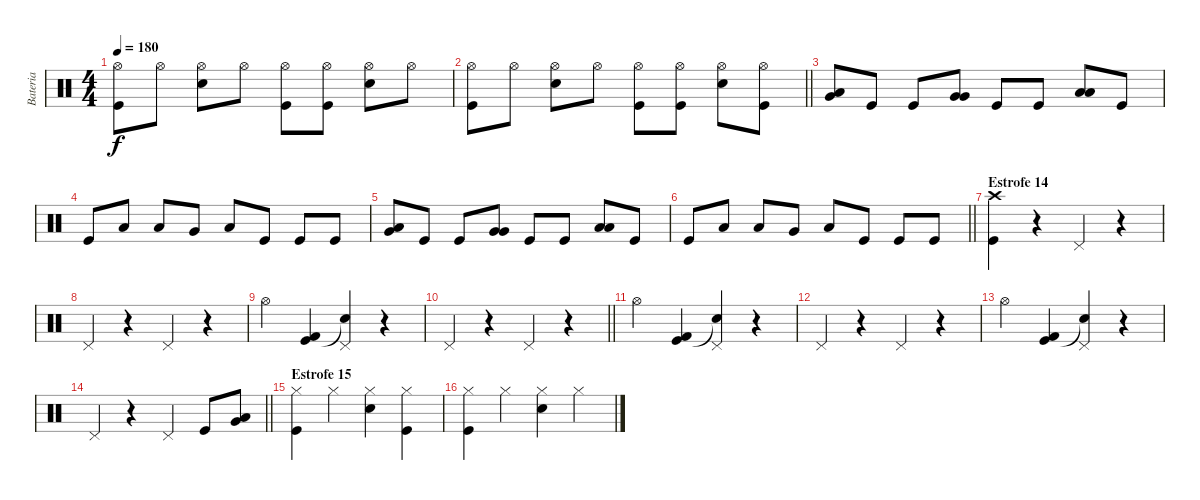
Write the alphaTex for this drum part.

\track ("Bateria" "Bateria") {instrument percussion}
\staff {score}
\articulation defaults
\ts (4 4)
\tempo 180
\clef neutral
\ks c
("Hi-Hat (open)" "Kick (hit)").8{dy f} "Hi-Hat (open)".8 ("Hi-Hat (open)" "Snare (hit) 2").8 "Hi-Hat (open)".8 ("Hi-Hat (open)" "Kick (hit)").8 ("Hi-Hat (open)" "Kick (hit)").8 ("Hi-Hat (open)" "Snare (hit) 2").8 "Hi-Hat (open)".8 |
\barLineRight lightlight
("Hi-Hat (open)" "Kick (hit)").8 "Hi-Hat (open)".8 ("Hi-Hat (open)" "Snare (hit) 2").8 "Hi-Hat (open)".8 ("Hi-Hat (open)" "Kick (hit)").8 ("Hi-Hat (open)" "Kick (hit)").8 ("Hi-Hat (open)" "Snare (hit) 2").8 ("Hi-Hat (open)" "Kick (hit)").8 |
("Very Low Tom (hit)" "Low Floor Tom (hit)").8 "Kick (hit)".8 "Kick (hit)".8 ("Very Low Tom (hit)" "Very Low Tom (hit)").8 "Kick (hit)".8 "Kick (hit)".8 ("Low Tom (hit)" "Low Tom (hit)").8 "Kick (hit)".8 |
"Kick (hit)".8 "Low Tom (hit)".8 "Low Tom (hit)".8 "Very Low Tom (hit)".8 "Low Floor Tom (hit)".8 "Kick (hit)".8 "Kick (hit)".8 "Kick (hit)".8 |
("Very Low Tom (hit)" "Low Floor Tom (hit)").8 "Kick (hit)".8 "Kick (hit)".8 ("Very Low Tom (hit)" "Very Low Tom (hit)").8 "Kick (hit)".8 "Kick (hit)".8 ("Low Tom (hit)" "Low Tom (hit)").8 "Kick (hit)".8 |
\barLineRight lightlight "Kick (hit)".8 "Low Tom (hit)".8 "Low Tom (hit)".8 "Very Low Tom (hit)".8 "Low Floor Tom (hit)".8 "Kick (hit)".8 "Kick (hit)".8 "Kick (hit)".8
|
\section ("" "Estrofe 14")
("Crash high (hit)" "Kick (hit)").4 r.4 "Pedal Hi-Hat (hit)".4 r.4 |
"Pedal Hi-Hat (hit)".4 r.4 "Pedal Hi-Hat (hit)".4 r.4 |
"Hi-Hat (open)".4 ("Kick (hit) 2" "Kick (hit)").4 ("Pedal Hi-Hat (hit)" "Snare (hit)"{t}).4 r.4 |
\barLineRight lightlight "Pedal Hi-Hat (hit)".4
r.4 "Pedal Hi-Hat (hit)".4 r.4 |
"Hi-Hat (open)".4 ("Kick (hit) 2" "Kick (hit)").4 ("Pedal Hi-Hat (hit)" "Snare (hit)"{t}).4 r.4 |
"Pedal Hi-Hat (hit)".4 r.4 "Pedal Hi-Hat (hit)".4 r.4 |
"Hi-Hat (open)".4 ("Kick (hit) 2" "Kick (hit)").4 ("Pedal Hi-Hat (hit)" "Snare (hit)"{t}).4 r.4 |
\barLineRight lightlight "Pedal Hi-Hat (hit)".4
r.4 "Pedal Hi-Hat (hit)".4 "Kick (hit)".8 ("Low Floor Tom (hit)" "Very Low Tom (hit)").8 |
\section ("" "Estrofe 15")
("Hi-Hat (closed)" "Kick (hit)").4 "Hi-Hat (closed)".4 ("Hi-Hat (closed)" "Snare (hit) 2").4 ("Hi-Hat (closed)" "Kick (hit)").4 |
("Hi-Hat (closed)" "Kick (hit)").4 "Hi-Hat (closed)".4 ("Hi-Hat (closed)" "Snare (hit) 2").4 "Hi-Hat (closed)".4
